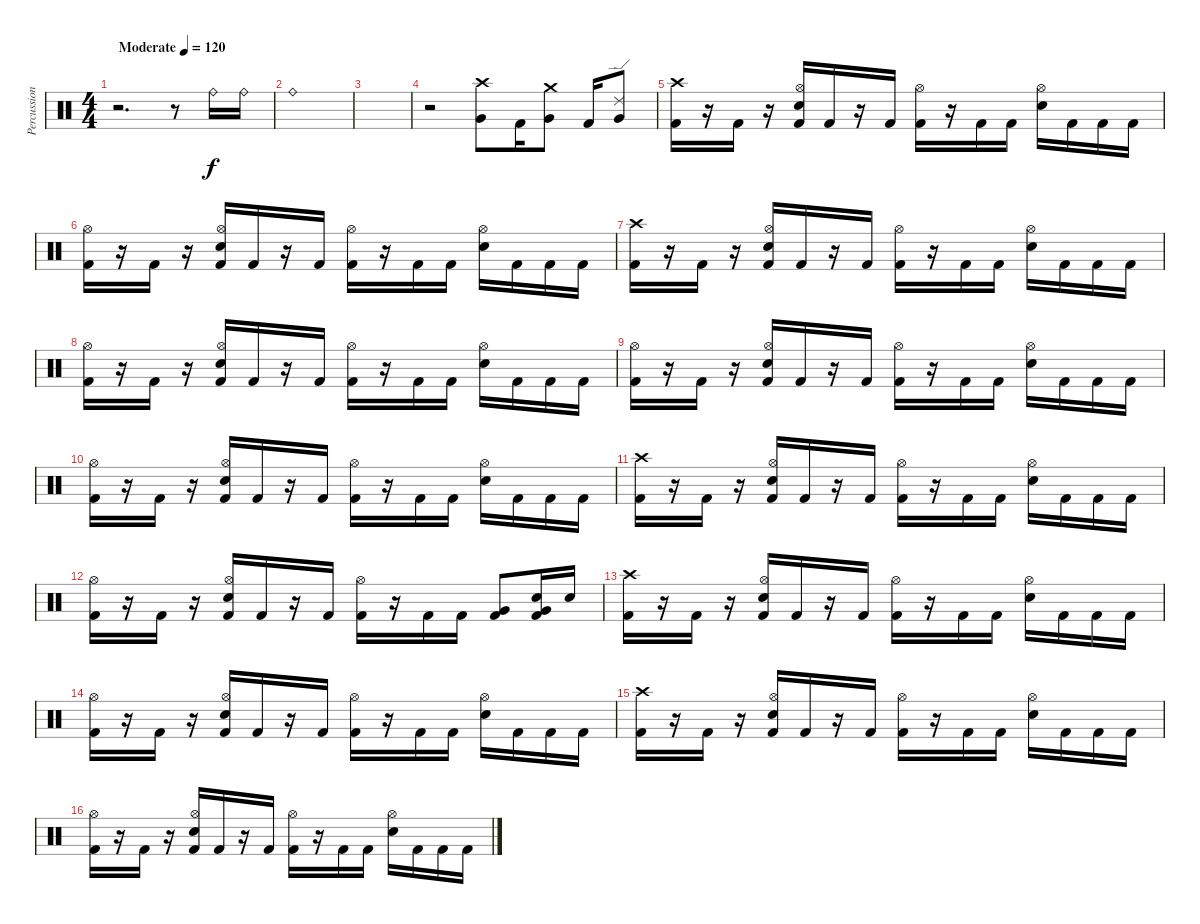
\track ("Percussion" "Percussion") {instrument percussion}
\staff {score}
\articulation defaults
\ts (4 4)
\tempo (120 "Moderate")
\clef neutral
\ks c
r.2{d dy f} r.8 "Ride (bell)".16 "Ride (bell)".16 |
"Ride (bell)".1 |
|
r.2 ("Crash high (hit)" "Very Low Tom (hit)").8 "Kick (hit) 2".16 ("Crash medium (hit)" "Very Low Tom (hit)").8 "Kick (hit) 2".16 ("Ride (edge) 2" "Very Low Tom (hit)").8 |
("Crash high (hit)" "Kick (hit) 2").16 r.16 "Kick (hit) 2".16 r.16 ("Hi-Hat (open)" "Electric Snare (hit)" "Kick (hit) 2").16 "Kick (hit) 2".16 r.16 "Kick (hit) 2".16 ("Hi-Hat (open)" "Kick (hit) 2").16 r.16 "Kick (hit) 2".16 "Kick (hit) 2".16 ("Hi-Hat (open)" "Electric Snare (hit)").16 "Kick (hit) 2".16 "Kick (hit) 2".16 "Kick (hit) 2".16 |
("Hi-Hat (open)" "Kick (hit) 2").16 r.16 "Kick (hit) 2".16 r.16 ("Hi-Hat (open)" "Electric Snare (hit)" "Kick (hit) 2").16 "Kick (hit) 2".16 r.16 "Kick (hit) 2".16 ("Hi-Hat (open)" "Kick (hit) 2").16 r.16 "Kick (hit) 2".16 "Kick (hit) 2".16 ("Hi-Hat (open)" "Electric Snare (hit)").16 "Kick (hit) 2".16 "Kick (hit) 2".16 "Kick (hit) 2".16 |
("Crash high (hit)" "Kick (hit) 2").16 r.16 "Kick (hit) 2".16 r.16 ("Hi-Hat (open)" "Electric Snare (hit)" "Kick (hit) 2").16 "Kick (hit) 2".16 r.16 "Kick (hit) 2".16 ("Hi-Hat (open)" "Kick (hit) 2").16 r.16 "Kick (hit) 2".16 "Kick (hit) 2".16 ("Hi-Hat (open)" "Electric Snare (hit)").16 "Kick (hit) 2".16 "Kick (hit) 2".16 "Kick (hit) 2".16 |
("Hi-Hat (open)" "Kick (hit) 2").16 r.16 "Kick (hit) 2".16 r.16 ("Hi-Hat (open)" "Electric Snare (hit)" "Kick (hit) 2").16 "Kick (hit) 2".16 r.16 "Kick (hit) 2".16 ("Hi-Hat (open)" "Kick (hit) 2").16 r.16 "Kick (hit) 2".16 "Kick (hit) 2".16 ("Hi-Hat (open)" "Electric Snare (hit)").16 "Kick (hit) 2".16 "Kick (hit) 2".16 "Kick (hit) 2".16 |
("Hi-Hat (open)" "Kick (hit) 2").16 r.16 "Kick (hit) 2".16 r.16 ("Hi-Hat (open)" "Electric Snare (hit)" "Kick (hit) 2").16 "Kick (hit) 2".16 r.16 "Kick (hit) 2".16 ("Hi-Hat (open)" "Kick (hit) 2").16 r.16 "Kick (hit) 2".16 "Kick (hit) 2".16 ("Hi-Hat (open)" "Electric Snare (hit)").16 "Kick (hit) 2".16 "Kick (hit) 2".16 "Kick (hit) 2".16 |
("Hi-Hat (open)" "Kick (hit) 2").16 r.16 "Kick (hit) 2".16 r.16 ("Hi-Hat (open)" "Electric Snare (hit)" "Kick (hit) 2").16 "Kick (hit) 2".16 r.16 "Kick (hit) 2".16 ("Hi-Hat (open)" "Kick (hit) 2").16 r.16 "Kick (hit) 2".16 "Kick (hit) 2".16 ("Hi-Hat (open)" "Electric Snare (hit)").16 "Kick (hit) 2".16 "Kick (hit) 2".16 "Kick (hit) 2".16 |
("Crash high (hit)" "Kick (hit) 2").16 r.16 "Kick (hit) 2".16 r.16 ("Hi-Hat (open)" "Electric Snare (hit)" "Kick (hit) 2").16 "Kick (hit) 2".16 r.16 "Kick (hit) 2".16 ("Hi-Hat (open)" "Kick (hit) 2").16 r.16 "Kick (hit) 2".16 "Kick (hit) 2".16 ("Hi-Hat (open)" "Electric Snare (hit)").16 "Kick (hit) 2".16 "Kick (hit) 2".16 "Kick (hit) 2".16 |
("Hi-Hat (open)" "Kick (hit) 2").16 r.16 "Kick (hit) 2".16 r.16 ("Hi-Hat (open)" "Electric Snare (hit)" "Kick (hit) 2").16 "Kick (hit) 2".16 r.16 "Kick (hit) 2".16 ("Hi-Hat (open)" "Kick (hit) 2").16 r.16 "Kick (hit) 2".16 "Kick (hit) 2".16 ("Very Low Tom (hit)" "Kick (hit) 2").8 ("Very Low Tom (hit)" "Electric Snare (hit)" "Kick (hit) 2").16 "Electric Snare (hit)".16 |
("Crash high (hit)" "Kick (hit) 2").16 r.16 "Kick (hit) 2".16 r.16 ("Hi-Hat (open)" "Electric Snare (hit)" "Kick (hit) 2").16 "Kick (hit) 2".16 r.16 "Kick (hit) 2".16 ("Hi-Hat (open)" "Kick (hit) 2").16 r.16 "Kick (hit) 2".16 "Kick (hit) 2".16 ("Hi-Hat (open)" "Electric Snare (hit)").16 "Kick (hit) 2".16 "Kick (hit) 2".16 "Kick (hit) 2".16 |
("Hi-Hat (open)" "Kick (hit) 2").16 r.16 "Kick (hit) 2".16 r.16 ("Hi-Hat (open)" "Electric Snare (hit)" "Kick (hit) 2").16 "Kick (hit) 2".16 r.16 "Kick (hit) 2".16 ("Hi-Hat (open)" "Kick (hit) 2").16 r.16 "Kick (hit) 2".16 "Kick (hit) 2".16 ("Hi-Hat (open)" "Electric Snare (hit)").16 "Kick (hit) 2".16 "Kick (hit) 2".16 "Kick (hit) 2".16 |
("Crash high (hit)" "Kick (hit) 2").16 r.16 "Kick (hit) 2".16 r.16 ("Hi-Hat (open)" "Electric Snare (hit)" "Kick (hit) 2").16 "Kick (hit) 2".16 r.16 "Kick (hit) 2".16 ("Hi-Hat (open)" "Kick (hit) 2").16 r.16 "Kick (hit) 2".16 "Kick (hit) 2".16 ("Hi-Hat (open)" "Electric Snare (hit)").16 "Kick (hit) 2".16 "Kick (hit) 2".16 "Kick (hit) 2".16 |
("Hi-Hat (open)" "Kick (hit) 2").16 r.16 "Kick (hit) 2".16 r.16 ("Hi-Hat (open)" "Electric Snare (hit)" "Kick (hit) 2").16 "Kick (hit) 2".16 r.16 "Kick (hit) 2".16 ("Hi-Hat (open)" "Kick (hit) 2").16 r.16 "Kick (hit) 2".16 "Kick (hit) 2".16 ("Hi-Hat (open)" "Electric Snare (hit)").16 "Kick (hit) 2".16 "Kick (hit) 2".16 "Kick (hit) 2".16
